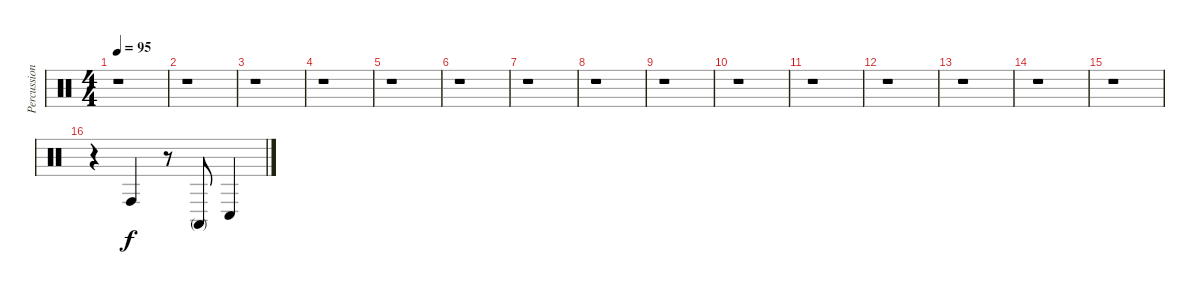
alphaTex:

\track ("Percussion" "Percussion") {instrument percussion}
\staff {score}
\articulation defaults
\ts (4 4)
\tempo 95
\clef neutral
\ks c
r.1{dy f} |
r.1 |
r.1 |
r.1 |
r.1 |
r.1 |
r.1 |
r.1 |
r.1 |
r.1 |
r.1 |
r.1 |
r.1 |
r.1 |
r.1 |
r.4 "Conga high (hit)".4 r.8 "Conga high (mute)".8 "Conga low (hit)".4
